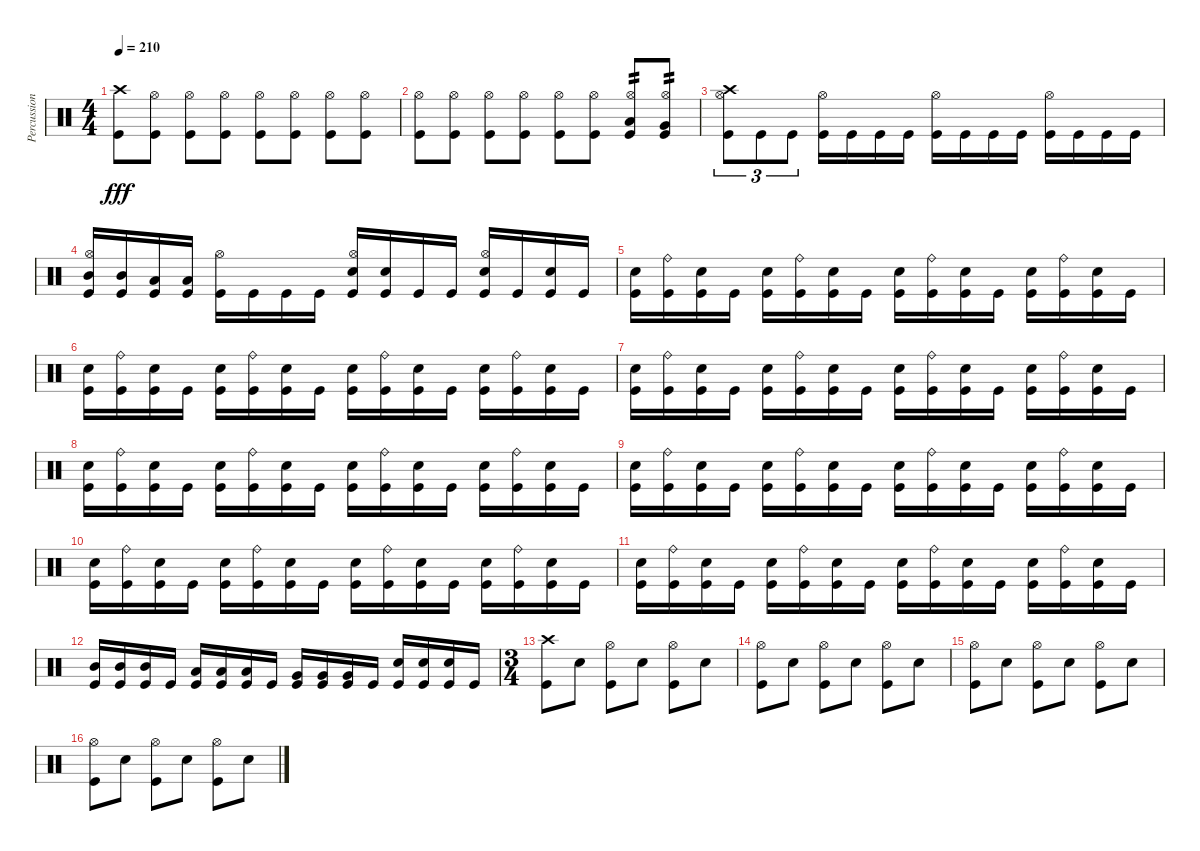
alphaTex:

\track ("Percussion" "Percussion") {instrument percussion}
\staff {score}
\articulation defaults
\ts (4 4)
\tempo 210
\clef neutral
\ks c
("Crash high (hit)" "Kick (hit)").8{dy fff} ("Hi-Hat (open)" "Kick (hit)").8 ("Hi-Hat (open)" "Kick (hit)").8 ("Hi-Hat (open)" "Kick (hit)").8 ("Hi-Hat (open)" "Kick (hit)").8 ("Hi-Hat (open)" "Kick (hit)").8 ("Hi-Hat (open)" "Kick (hit)").8 ("Hi-Hat (open)" "Kick (hit)").8 |
("Hi-Hat (open)" "Kick (hit)").8 ("Hi-Hat (open)" "Kick (hit)").8 ("Hi-Hat (open)" "Kick (hit)").8 ("Hi-Hat (open)" "Kick (hit)").8 ("Hi-Hat (open)" "Kick (hit)").8 ("Hi-Hat (open)" "Kick (hit)").8 ("Hi-Hat (open)" "Low Tom (hit)" "Kick (hit)").8{tp 2} ("Hi-Hat (open)" "Very Low Tom (hit)" "Kick (hit)").8{tp 2} |
("Hi-Hat (open)" "Crash high (hit)" "Kick (hit)").8{tu (3 2)} "Kick (hit)".8{tu (3 2)} "Kick (hit)".8{tu (3 2)} ("Hi-Hat (open)" "Kick (hit)").16 "Kick (hit)".16 "Kick (hit)".16 "Kick (hit)".16 ("Hi-Hat (open)" "Kick (hit)").16 "Kick (hit)".16 "Kick (hit)".16 "Kick (hit)".16 ("Hi-Hat (open)" "Kick (hit)").16 "Kick (hit)".16 "Kick (hit)".16 "Kick (hit)".16 |
("Hi-Hat (open)" "Mid Tom (hit)" "Kick (hit)").16 ("Mid Tom (hit)" "Kick (hit)").16 ("Low Tom (hit)" "Kick (hit)").16 ("Low Tom (hit)" "Kick (hit)").16 ("Hi-Hat (open)" "Kick (hit)").16 "Kick (hit)".16 "Kick (hit)".16 "Kick (hit)".16 ("Hi-Hat (open)" "Electric Snare (hit)" "Kick (hit)").16 ("Electric Snare (hit)" "Kick (hit)").16 "Kick (hit)".16 "Kick (hit)".16 ("Hi-Hat (open)" "Electric Snare (hit)" "Kick (hit)").16 "Kick (hit)".16 ("Electric Snare (hit)" "Kick (hit)").16 "Kick (hit)".16 |
("Electric Snare (hit)" "Kick (hit)").16 ("Ride (bell)" "Kick (hit)").16 ("Electric Snare (hit)" "Kick (hit)").16 "Kick (hit)".16 ("Electric Snare (hit)" "Kick (hit)").16 ("Ride (bell)" "Kick (hit)").16 ("Electric Snare (hit)" "Kick (hit)").16 "Kick (hit)".16 ("Electric Snare (hit)" "Kick (hit)").16 ("Ride (bell)" "Kick (hit)").16 ("Electric Snare (hit)" "Kick (hit)").16 "Kick (hit)".16 ("Electric Snare (hit)" "Kick (hit)").16 ("Ride (bell)" "Kick (hit)").16 ("Electric Snare (hit)" "Kick (hit)").16 "Kick (hit)".16 |
("Electric Snare (hit)" "Kick (hit)").16 ("Ride (bell)" "Kick (hit)").16 ("Electric Snare (hit)" "Kick (hit)").16 "Kick (hit)".16 ("Electric Snare (hit)" "Kick (hit)").16 ("Ride (bell)" "Kick (hit)").16 ("Electric Snare (hit)" "Kick (hit)").16 "Kick (hit)".16 ("Electric Snare (hit)" "Kick (hit)").16 ("Ride (bell)" "Kick (hit)").16 ("Electric Snare (hit)" "Kick (hit)").16 "Kick (hit)".16 ("Electric Snare (hit)" "Kick (hit)").16 ("Ride (bell)" "Kick (hit)").16 ("Electric Snare (hit)" "Kick (hit)").16 "Kick (hit)".16 |
("Electric Snare (hit)" "Kick (hit)").16 ("Ride (bell)" "Kick (hit)").16 ("Electric Snare (hit)" "Kick (hit)").16 "Kick (hit)".16 ("Electric Snare (hit)" "Kick (hit)").16 ("Ride (bell)" "Kick (hit)").16 ("Electric Snare (hit)" "Kick (hit)").16 "Kick (hit)".16 ("Electric Snare (hit)" "Kick (hit)").16 ("Ride (bell)" "Kick (hit)").16 ("Electric Snare (hit)" "Kick (hit)").16 "Kick (hit)".16 ("Electric Snare (hit)" "Kick (hit)").16 ("Ride (bell)" "Kick (hit)").16 ("Electric Snare (hit)" "Kick (hit)").16 "Kick (hit)".16 |
("Electric Snare (hit)" "Kick (hit)").16 ("Ride (bell)" "Kick (hit)").16 ("Electric Snare (hit)" "Kick (hit)").16 "Kick (hit)".16 ("Electric Snare (hit)" "Kick (hit)").16 ("Ride (bell)" "Kick (hit)").16 ("Electric Snare (hit)" "Kick (hit)").16 "Kick (hit)".16 ("Electric Snare (hit)" "Kick (hit)").16 ("Ride (bell)" "Kick (hit)").16 ("Electric Snare (hit)" "Kick (hit)").16 "Kick (hit)".16 ("Electric Snare (hit)" "Kick (hit)").16 ("Ride (bell)" "Kick (hit)").16 ("Electric Snare (hit)" "Kick (hit)").16 "Kick (hit)".16 |
("Electric Snare (hit)" "Kick (hit)").16 ("Ride (bell)" "Kick (hit)").16 ("Electric Snare (hit)" "Kick (hit)").16 "Kick (hit)".16 ("Electric Snare (hit)" "Kick (hit)").16 ("Ride (bell)" "Kick (hit)").16 ("Electric Snare (hit)" "Kick (hit)").16 "Kick (hit)".16 ("Electric Snare (hit)" "Kick (hit)").16 ("Ride (bell)" "Kick (hit)").16 ("Electric Snare (hit)" "Kick (hit)").16 "Kick (hit)".16 ("Electric Snare (hit)" "Kick (hit)").16 ("Ride (bell)" "Kick (hit)").16 ("Electric Snare (hit)" "Kick (hit)").16 "Kick (hit)".16 |
("Electric Snare (hit)" "Kick (hit)").16 ("Ride (bell)" "Kick (hit)").16 ("Electric Snare (hit)" "Kick (hit)").16 "Kick (hit)".16 ("Electric Snare (hit)" "Kick (hit)").16 ("Ride (bell)" "Kick (hit)").16 ("Electric Snare (hit)" "Kick (hit)").16 "Kick (hit)".16 ("Electric Snare (hit)" "Kick (hit)").16 ("Ride (bell)" "Kick (hit)").16 ("Electric Snare (hit)" "Kick (hit)").16 "Kick (hit)".16 ("Electric Snare (hit)" "Kick (hit)").16 ("Ride (bell)" "Kick (hit)").16 ("Electric Snare (hit)" "Kick (hit)").16 "Kick (hit)".16 |
("Electric Snare (hit)" "Kick (hit)").16 ("Ride (bell)" "Kick (hit)").16 ("Electric Snare (hit)" "Kick (hit)").16 "Kick (hit)".16 ("Electric Snare (hit)" "Kick (hit)").16 ("Ride (bell)" "Kick (hit)").16 ("Electric Snare (hit)" "Kick (hit)").16 "Kick (hit)".16 ("Electric Snare (hit)" "Kick (hit)").16 ("Ride (bell)" "Kick (hit)").16 ("Electric Snare (hit)" "Kick (hit)").16 "Kick (hit)".16 ("Electric Snare (hit)" "Kick (hit)").16 ("Ride (bell)" "Kick (hit)").16 ("Electric Snare (hit)" "Kick (hit)").16 "Kick (hit)".16 |
("Mid Tom (hit)" "Kick (hit)").16 ("Mid Tom (hit)" "Kick (hit)").16 ("Mid Tom (hit)" "Kick (hit)").16 "Kick (hit)".16 ("Low Tom (hit)" "Kick (hit)").16 ("Low Tom (hit)" "Kick (hit)").16 ("Low Tom (hit)" "Kick (hit)").16 "Kick (hit)".16 ("Very Low Tom (hit)" "Kick (hit)").16 ("Very Low Tom (hit)" "Kick (hit)").16 ("Very Low Tom (hit)" "Kick (hit)").16 "Kick (hit)".16 ("Electric Snare (hit)" "Kick (hit)").16 ("Electric Snare (hit)" "Kick (hit)").16 ("Electric Snare (hit)" "Kick (hit)").16 "Kick (hit)".16 |
\ts (3 4)
("Crash high (hit)" "Kick (hit)").8 "Electric Snare (hit)".8 ("Hi-Hat (open)" "Kick (hit)").8 "Electric Snare (hit)".8 ("Hi-Hat (open)" "Kick (hit)").8 "Electric Snare (hit)".8 |
("Hi-Hat (open)" "Kick (hit)").8 "Electric Snare (hit)".8 ("Hi-Hat (open)" "Kick (hit)").8 "Electric Snare (hit)".8 ("Hi-Hat (open)" "Kick (hit)").8 "Electric Snare (hit)".8 |
("Hi-Hat (open)" "Kick (hit)").8 "Electric Snare (hit)".8 ("Hi-Hat (open)" "Kick (hit)").8 "Electric Snare (hit)".8 ("Hi-Hat (open)" "Kick (hit)").8 "Electric Snare (hit)".8 |
("Hi-Hat (open)" "Kick (hit)").8 "Electric Snare (hit)".8 ("Hi-Hat (open)" "Kick (hit)").8 "Electric Snare (hit)".8 ("Hi-Hat (open)" "Kick (hit)").8 "Electric Snare (hit)".8
